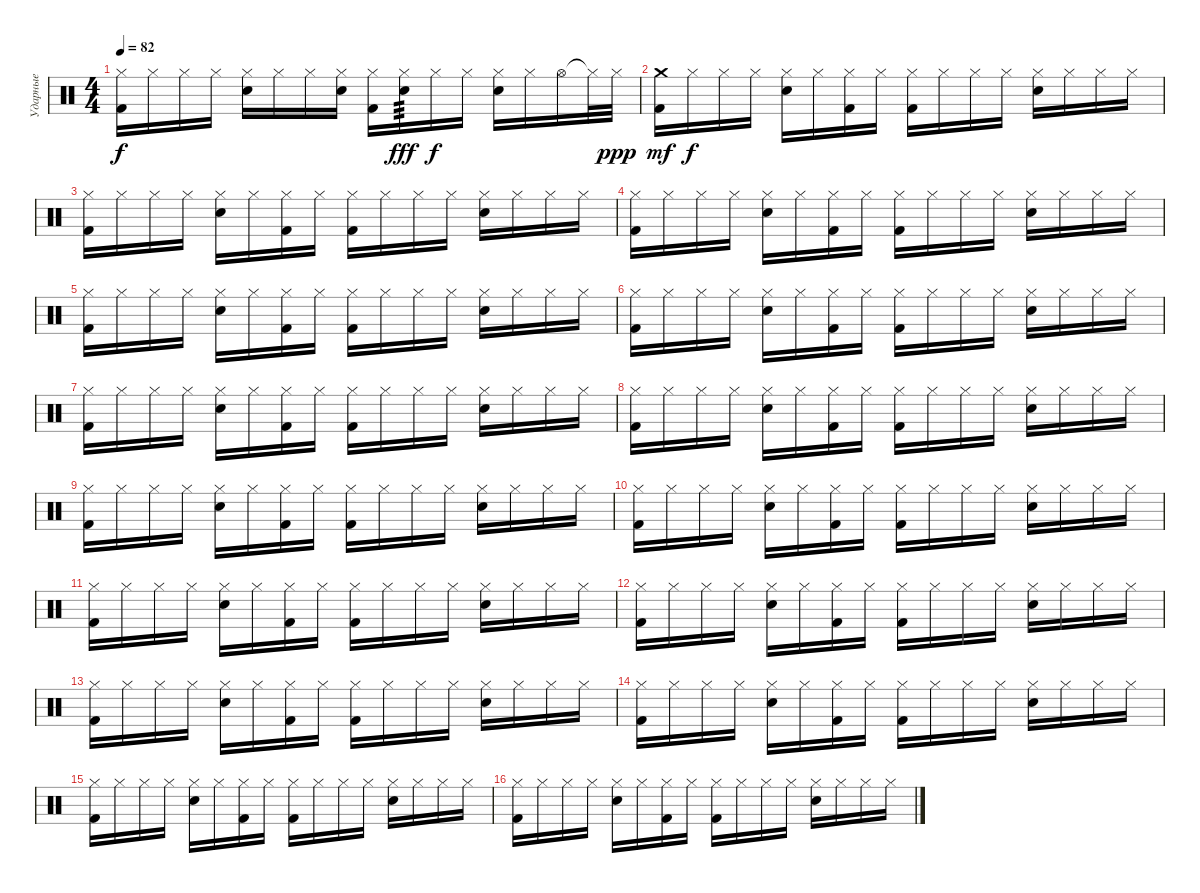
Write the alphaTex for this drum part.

\track ("Ударные" "Ударные") {instrument percussion}
\staff {score}
\articulation defaults
\ts (4 4)
\tempo 82
\clef neutral
\ks c
("Hi-Hat (closed)" "Kick (hit) 2").16{dy f} "Hi-Hat (closed)".16 "Hi-Hat (closed)".16 "Hi-Hat (closed)".16 ("Hi-Hat (closed)" "Electric Snare (hit)").16 "Hi-Hat (closed)".16 "Hi-Hat (closed)".16 ("Hi-Hat (closed)" "Electric Snare (hit)").16 ("Hi-Hat (closed)" "Kick (hit) 2").16 ("Hi-Hat (closed)" "Electric Snare (hit)").16{tp 3 dy fff} "Hi-Hat (closed)".16{dy f} "Hi-Hat (closed)".16 ("Hi-Hat (closed)" "Electric Snare (hit)").16 "Hi-Hat (closed)".16 "Hi-Hat (open)".16 "Hi-Hat (closed)"{t}.32 "Hi-Hat (closed)".32{dy ppp} |
("Crash medium (hit)" "Kick (hit) 2").16{dy mf} "Hi-Hat (closed)".16{dy f} "Hi-Hat (closed)".16 "Hi-Hat (closed)".16 ("Hi-Hat (closed)" "Electric Snare (hit)").16 "Hi-Hat (closed)".16 ("Hi-Hat (closed)" "Kick (hit) 2").16 "Hi-Hat (closed)".16 ("Hi-Hat (closed)" "Kick (hit) 2").16 "Hi-Hat (closed)".16 "Hi-Hat (closed)".16 "Hi-Hat (closed)".16 ("Hi-Hat (closed)" "Electric Snare (hit)").16 "Hi-Hat (closed)".16 "Hi-Hat (closed)".16 "Hi-Hat (closed)".16 |
("Hi-Hat (closed)" "Kick (hit) 2").16 "Hi-Hat (closed)".16 "Hi-Hat (closed)".16 "Hi-Hat (closed)".16 ("Hi-Hat (closed)" "Electric Snare (hit)").16 "Hi-Hat (closed)".16 ("Hi-Hat (closed)" "Kick (hit) 2").16 "Hi-Hat (closed)".16 ("Hi-Hat (closed)" "Kick (hit) 2").16 "Hi-Hat (closed)".16 "Hi-Hat (closed)".16 "Hi-Hat (closed)".16 ("Hi-Hat (closed)" "Electric Snare (hit)").16 "Hi-Hat (closed)".16 "Hi-Hat (closed)".16 "Hi-Hat (closed)".16 |
("Hi-Hat (closed)" "Kick (hit) 2").16 "Hi-Hat (closed)".16 "Hi-Hat (closed)".16 "Hi-Hat (closed)".16 ("Hi-Hat (closed)" "Electric Snare (hit)").16 "Hi-Hat (closed)".16 ("Hi-Hat (closed)" "Kick (hit) 2").16 "Hi-Hat (closed)".16 ("Hi-Hat (closed)" "Kick (hit) 2").16 "Hi-Hat (closed)".16 "Hi-Hat (closed)".16 "Hi-Hat (closed)".16 ("Hi-Hat (closed)" "Electric Snare (hit)").16 "Hi-Hat (closed)".16 "Hi-Hat (closed)".16 "Hi-Hat (closed)".16 |
("Hi-Hat (closed)" "Kick (hit) 2").16 "Hi-Hat (closed)".16 "Hi-Hat (closed)".16 "Hi-Hat (closed)".16 ("Hi-Hat (closed)" "Electric Snare (hit)").16 "Hi-Hat (closed)".16 ("Hi-Hat (closed)" "Kick (hit) 2").16 "Hi-Hat (closed)".16 ("Hi-Hat (closed)" "Kick (hit) 2").16 "Hi-Hat (closed)".16 "Hi-Hat (closed)".16 "Hi-Hat (closed)".16 ("Hi-Hat (closed)" "Electric Snare (hit)").16 "Hi-Hat (closed)".16 "Hi-Hat (closed)".16 "Hi-Hat (closed)".16 |
("Hi-Hat (closed)" "Kick (hit) 2").16 "Hi-Hat (closed)".16 "Hi-Hat (closed)".16 "Hi-Hat (closed)".16 ("Hi-Hat (closed)" "Electric Snare (hit)").16 "Hi-Hat (closed)".16 ("Hi-Hat (closed)" "Kick (hit) 2").16 "Hi-Hat (closed)".16 ("Hi-Hat (closed)" "Kick (hit) 2").16 "Hi-Hat (closed)".16 "Hi-Hat (closed)".16 "Hi-Hat (closed)".16 ("Hi-Hat (closed)" "Electric Snare (hit)").16 "Hi-Hat (closed)".16 "Hi-Hat (closed)".16 "Hi-Hat (closed)".16 |
("Hi-Hat (closed)" "Kick (hit) 2").16 "Hi-Hat (closed)".16 "Hi-Hat (closed)".16 "Hi-Hat (closed)".16 ("Hi-Hat (closed)" "Electric Snare (hit)").16 "Hi-Hat (closed)".16 ("Hi-Hat (closed)" "Kick (hit) 2").16 "Hi-Hat (closed)".16 ("Hi-Hat (closed)" "Kick (hit) 2").16 "Hi-Hat (closed)".16 "Hi-Hat (closed)".16 "Hi-Hat (closed)".16 ("Hi-Hat (closed)" "Electric Snare (hit)").16 "Hi-Hat (closed)".16 "Hi-Hat (closed)".16 "Hi-Hat (closed)".16 |
("Hi-Hat (closed)" "Kick (hit) 2").16 "Hi-Hat (closed)".16 "Hi-Hat (closed)".16 "Hi-Hat (closed)".16 ("Hi-Hat (closed)" "Electric Snare (hit)").16 "Hi-Hat (closed)".16 ("Hi-Hat (closed)" "Kick (hit) 2").16 "Hi-Hat (closed)".16 ("Hi-Hat (closed)" "Kick (hit) 2").16 "Hi-Hat (closed)".16 "Hi-Hat (closed)".16 "Hi-Hat (closed)".16 ("Hi-Hat (closed)" "Electric Snare (hit)").16 "Hi-Hat (closed)".16 "Hi-Hat (closed)".16 "Hi-Hat (closed)".16 |
("Hi-Hat (closed)" "Kick (hit) 2").16 "Hi-Hat (closed)".16 "Hi-Hat (closed)".16 "Hi-Hat (closed)".16 ("Hi-Hat (closed)" "Electric Snare (hit)").16 "Hi-Hat (closed)".16 ("Hi-Hat (closed)" "Kick (hit) 2").16 "Hi-Hat (closed)".16 ("Hi-Hat (closed)" "Kick (hit) 2").16 "Hi-Hat (closed)".16 "Hi-Hat (closed)".16 "Hi-Hat (closed)".16 ("Hi-Hat (closed)" "Electric Snare (hit)").16 "Hi-Hat (closed)".16 "Hi-Hat (closed)".16 "Hi-Hat (closed)".16 |
("Hi-Hat (closed)" "Kick (hit) 2").16 "Hi-Hat (closed)".16 "Hi-Hat (closed)".16 "Hi-Hat (closed)".16 ("Hi-Hat (closed)" "Electric Snare (hit)").16 "Hi-Hat (closed)".16 ("Hi-Hat (closed)" "Kick (hit) 2").16 "Hi-Hat (closed)".16 ("Hi-Hat (closed)" "Kick (hit) 2").16 "Hi-Hat (closed)".16 "Hi-Hat (closed)".16 "Hi-Hat (closed)".16 ("Hi-Hat (closed)" "Electric Snare (hit)").16 "Hi-Hat (closed)".16 "Hi-Hat (closed)".16 "Hi-Hat (closed)".16 |
("Hi-Hat (closed)" "Kick (hit) 2").16 "Hi-Hat (closed)".16 "Hi-Hat (closed)".16 "Hi-Hat (closed)".16 ("Hi-Hat (closed)" "Electric Snare (hit)").16 "Hi-Hat (closed)".16 ("Hi-Hat (closed)" "Kick (hit) 2").16 "Hi-Hat (closed)".16 ("Hi-Hat (closed)" "Kick (hit) 2").16 "Hi-Hat (closed)".16 "Hi-Hat (closed)".16 "Hi-Hat (closed)".16 ("Hi-Hat (closed)" "Electric Snare (hit)").16 "Hi-Hat (closed)".16 "Hi-Hat (closed)".16 "Hi-Hat (closed)".16 |
("Hi-Hat (closed)" "Kick (hit) 2").16 "Hi-Hat (closed)".16 "Hi-Hat (closed)".16 "Hi-Hat (closed)".16 ("Hi-Hat (closed)" "Electric Snare (hit)").16 "Hi-Hat (closed)".16 ("Hi-Hat (closed)" "Kick (hit) 2").16 "Hi-Hat (closed)".16 ("Hi-Hat (closed)" "Kick (hit) 2").16 "Hi-Hat (closed)".16 "Hi-Hat (closed)".16 "Hi-Hat (closed)".16 ("Hi-Hat (closed)" "Electric Snare (hit)").16 "Hi-Hat (closed)".16 "Hi-Hat (closed)".16 "Hi-Hat (closed)".16 |
("Hi-Hat (closed)" "Kick (hit) 2").16 "Hi-Hat (closed)".16 "Hi-Hat (closed)".16 "Hi-Hat (closed)".16 ("Hi-Hat (closed)" "Electric Snare (hit)").16 "Hi-Hat (closed)".16 ("Hi-Hat (closed)" "Kick (hit) 2").16 "Hi-Hat (closed)".16 ("Hi-Hat (closed)" "Kick (hit) 2").16 "Hi-Hat (closed)".16 "Hi-Hat (closed)".16 "Hi-Hat (closed)".16 ("Hi-Hat (closed)" "Electric Snare (hit)").16 "Hi-Hat (closed)".16 "Hi-Hat (closed)".16 "Hi-Hat (closed)".16 |
("Hi-Hat (closed)" "Kick (hit) 2").16 "Hi-Hat (closed)".16 "Hi-Hat (closed)".16 "Hi-Hat (closed)".16 ("Hi-Hat (closed)" "Electric Snare (hit)").16 "Hi-Hat (closed)".16 ("Hi-Hat (closed)" "Kick (hit) 2").16 "Hi-Hat (closed)".16 ("Hi-Hat (closed)" "Kick (hit) 2").16 "Hi-Hat (closed)".16 "Hi-Hat (closed)".16 "Hi-Hat (closed)".16 ("Hi-Hat (closed)" "Electric Snare (hit)").16 "Hi-Hat (closed)".16 "Hi-Hat (closed)".16 "Hi-Hat (closed)".16 |
("Hi-Hat (closed)" "Kick (hit) 2").16 "Hi-Hat (closed)".16 "Hi-Hat (closed)".16 "Hi-Hat (closed)".16 ("Hi-Hat (closed)" "Electric Snare (hit)").16 "Hi-Hat (closed)".16 ("Hi-Hat (closed)" "Kick (hit) 2").16 "Hi-Hat (closed)".16 ("Hi-Hat (closed)" "Kick (hit) 2").16 "Hi-Hat (closed)".16 "Hi-Hat (closed)".16 "Hi-Hat (closed)".16 ("Hi-Hat (closed)" "Electric Snare (hit)").16 "Hi-Hat (closed)".16 "Hi-Hat (closed)".16 "Hi-Hat (closed)".16 |
("Hi-Hat (closed)" "Kick (hit) 2").16 "Hi-Hat (closed)".16 "Hi-Hat (closed)".16 "Hi-Hat (closed)".16 ("Hi-Hat (closed)" "Electric Snare (hit)").16 "Hi-Hat (closed)".16 ("Hi-Hat (closed)" "Kick (hit) 2").16 "Hi-Hat (closed)".16 ("Hi-Hat (closed)" "Kick (hit) 2").16 "Hi-Hat (closed)".16 "Hi-Hat (closed)".16 "Hi-Hat (closed)".16 ("Hi-Hat (closed)" "Electric Snare (hit)").16 "Hi-Hat (closed)".16 "Hi-Hat (closed)".16 "Hi-Hat (closed)".16
